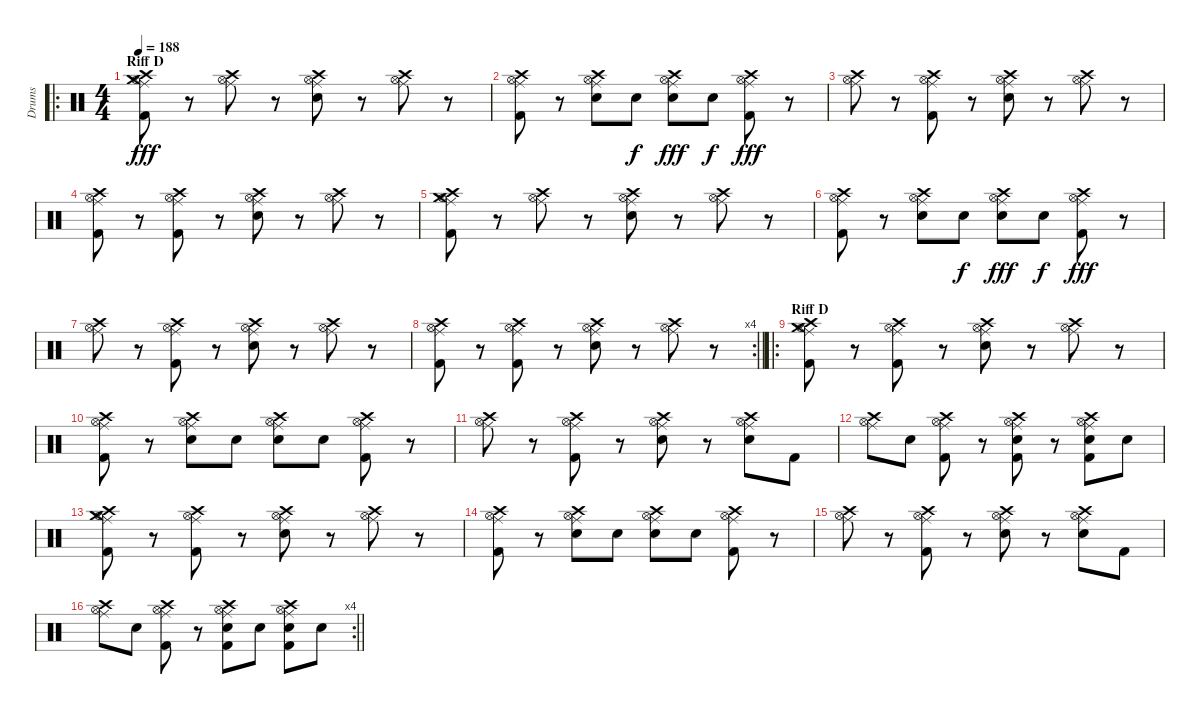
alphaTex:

\track ("Drums" "Drums") {instrument percussion}
\staff {score}
\articulation defaults
\ro
\ts (4 4)
\section ("" "Riff D")
\tempo 188
\clef neutral
\ks c
("Crash medium (hit)" "Crash high (hit)" "Ride (middle)" "Hi-Hat (open)" "Kick (hit) 2").8{dy fff} r.8 ("Crash high (hit)" "Ride (middle)" "Hi-Hat (open)").8 r.8 ("Crash high (hit)" "Ride (middle)" "Hi-Hat (open)" "Electric Snare (hit)").8 r.8 ("Crash high (hit)" "Ride (middle)" "Hi-Hat (open)").8 r.8 |
("Crash high (hit)" "Ride (middle)" "Hi-Hat (open)" "Kick (hit) 2").8 r.8 ("Crash high (hit)" "Ride (middle)" "Hi-Hat (open)" "Electric Snare (hit)").8 "Electric Snare (hit)".8{dy f} ("Crash high (hit)" "Ride (middle)" "Hi-Hat (open)" "Electric Snare (hit)").8{dy fff} "Electric Snare (hit)".8{dy f} ("Crash high (hit)" "Ride (middle)" "Hi-Hat (open)" "Kick (hit) 2").8{dy fff} r.8 |
("Crash high (hit)" "Ride (middle)" "Hi-Hat (open)").8 r.8 ("Crash high (hit)" "Ride (middle)" "Hi-Hat (open)" "Kick (hit) 2").8 r.8 ("Crash high (hit)" "Ride (middle)" "Hi-Hat (open)" "Electric Snare (hit)").8 r.8 ("Crash high (hit)" "Ride (middle)" "Hi-Hat (open)").8 r.8 |
("Crash high (hit)" "Ride (middle)" "Hi-Hat (open)" "Kick (hit) 2").8 r.8 ("Crash high (hit)" "Ride (middle)" "Hi-Hat (open)" "Kick (hit) 2").8 r.8 ("Crash high (hit)" "Ride (middle)" "Hi-Hat (open)" "Electric Snare (hit)").8 r.8 ("Crash high (hit)" "Ride (middle)" "Hi-Hat (open)").8 r.8 |
("Crash medium (hit)" "Crash high (hit)" "Ride (middle)" "Hi-Hat (open)" "Kick (hit) 2").8 r.8 ("Crash high (hit)" "Ride (middle)" "Hi-Hat (open)").8 r.8 ("Crash high (hit)" "Ride (middle)" "Hi-Hat (open)" "Electric Snare (hit)").8 r.8 ("Crash high (hit)" "Ride (middle)" "Hi-Hat (open)").8 r.8 |
("Crash high (hit)" "Ride (middle)" "Hi-Hat (open)" "Kick (hit) 2").8 r.8 ("Crash high (hit)" "Ride (middle)" "Hi-Hat (open)" "Electric Snare (hit)").8 "Electric Snare (hit)".8{dy f} ("Crash high (hit)" "Ride (middle)" "Hi-Hat (open)" "Electric Snare (hit)").8{dy fff} "Electric Snare (hit)".8{dy f} ("Crash high (hit)" "Ride (middle)" "Hi-Hat (open)" "Kick (hit) 2").8{dy fff} r.8 |
("Crash high (hit)" "Ride (middle)" "Hi-Hat (open)").8 r.8 ("Crash high (hit)" "Ride (middle)" "Hi-Hat (open)" "Kick (hit) 2").8 r.8 ("Crash high (hit)" "Ride (middle)" "Hi-Hat (open)" "Electric Snare (hit)").8 r.8 ("Crash high (hit)" "Ride (middle)" "Hi-Hat (open)").8 r.8 |
\rc 4
\barLineRight lightlight
("Crash high (hit)" "Ride (middle)" "Hi-Hat (open)" "Kick (hit) 2").8 r.8 ("Crash high (hit)" "Ride (middle)" "Hi-Hat (open)" "Kick (hit) 2").8 r.8 ("Crash high (hit)" "Ride (middle)" "Hi-Hat (open)" "Electric Snare (hit)").8 r.8 ("Crash high (hit)" "Ride (middle)" "Hi-Hat (open)").8 r.8 |
\ro
\section ("" "Riff D")
("Crash medium (hit)" "Crash high (hit)" "Ride (middle)" "Hi-Hat (open)" "Kick (hit) 2").8 r.8 ("Crash high (hit)" "Ride (middle)" "Hi-Hat (open)" "Kick (hit) 2").8 r.8 ("Crash high (hit)" "Ride (middle)" "Hi-Hat (open)" "Electric Snare (hit)").8 r.8 ("Crash high (hit)" "Ride (middle)" "Hi-Hat (open)").8 r.8 |
("Crash high (hit)" "Ride (middle)" "Hi-Hat (open)" "Kick (hit) 2").8 r.8 ("Crash high (hit)" "Ride (middle)" "Hi-Hat (open)" "Electric Snare (hit)").8 "Electric Snare (hit)".8 ("Crash high (hit)" "Ride (middle)" "Hi-Hat (open)" "Electric Snare (hit)").8 "Electric Snare (hit)".8 ("Crash high (hit)" "Ride (middle)" "Hi-Hat (open)" "Kick (hit) 2").8 r.8 |
("Crash high (hit)" "Ride (middle)" "Hi-Hat (open)").8 r.8 ("Crash high (hit)" "Ride (middle)" "Hi-Hat (open)" "Kick (hit) 2").8 r.8 ("Crash high (hit)" "Ride (middle)" "Hi-Hat (open)" "Electric Snare (hit)").8 r.8 ("Crash high (hit)" "Ride (middle)" "Hi-Hat (open)" "Electric Snare (hit)").8 "Kick (hit) 2".8 |
("Crash high (hit)" "Ride (middle)" "Hi-Hat (open)").8 "Electric Snare (hit)".8 ("Crash high (hit)" "Ride (middle)" "Hi-Hat (open)" "Kick (hit) 2").8 r.8 ("Crash high (hit)" "Ride (middle)" "Hi-Hat (open)" "Electric Snare (hit)" "Kick (hit) 2").8 r.8 ("Crash high (hit)" "Ride (middle)" "Hi-Hat (open)" "Electric Snare (hit)" "Kick (hit) 2").8 "Electric Snare (hit)".8 |
("Crash medium (hit)" "Crash high (hit)" "Ride (middle)" "Hi-Hat (open)" "Kick (hit) 2").8 r.8 ("Crash high (hit)" "Ride (middle)" "Hi-Hat (open)" "Kick (hit) 2").8 r.8 ("Crash high (hit)" "Ride (middle)" "Hi-Hat (open)" "Electric Snare (hit)").8 r.8 ("Crash high (hit)" "Ride (middle)" "Hi-Hat (open)").8 r.8 |
("Crash high (hit)" "Ride (middle)" "Hi-Hat (open)" "Kick (hit) 2").8 r.8 ("Crash high (hit)" "Ride (middle)" "Hi-Hat (open)" "Electric Snare (hit)").8 "Electric Snare (hit)".8 ("Crash high (hit)" "Ride (middle)" "Hi-Hat (open)" "Electric Snare (hit)").8 "Electric Snare (hit)".8 ("Crash high (hit)" "Ride (middle)" "Hi-Hat (open)" "Kick (hit) 2").8 r.8 |
("Crash high (hit)" "Ride (middle)" "Hi-Hat (open)").8 r.8 ("Crash high (hit)" "Ride (middle)" "Hi-Hat (open)" "Kick (hit) 2").8 r.8 ("Crash high (hit)" "Ride (middle)" "Hi-Hat (open)" "Electric Snare (hit)").8 r.8 ("Crash high (hit)" "Ride (middle)" "Hi-Hat (open)" "Electric Snare (hit)").8 "Kick (hit) 2".8 |
\rc 4
\barLineRight lightlight
("Crash high (hit)" "Ride (middle)" "Hi-Hat (open)").8 "Electric Snare (hit)".8 ("Crash high (hit)" "Ride (middle)" "Hi-Hat (open)" "Kick (hit) 2").8 r.8 ("Crash high (hit)" "Ride (middle)" "Hi-Hat (open)" "Electric Snare (hit)" "Kick (hit) 2").8 "Electric Snare (hit)".8 ("Crash high (hit)" "Ride (middle)" "Hi-Hat (open)" "Electric Snare (hit)" "Kick (hit) 2").8 "Electric Snare (hit)".8
